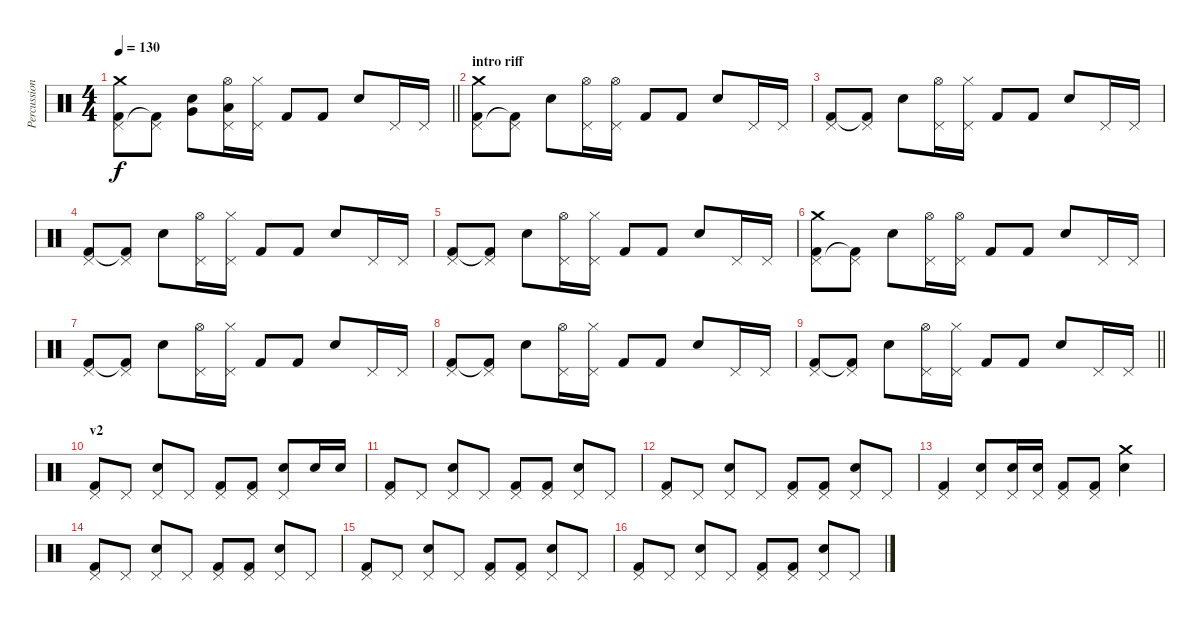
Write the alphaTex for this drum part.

\track ("Percussion" "Percussion") {instrument percussion}
\staff {score}
\articulation defaults
\ts (4 4)
\tempo 130
\clef neutral
\barLineRight lightlight
\ks c
("Crash medium (hit)" "Pedal Hi-Hat (hit)" "Kick (hit) 2").8{dy f} ("Pedal Hi-Hat (hit)" "Kick (hit) 2"{t}).8 ("Very Low Tom (hit)" "Electric Snare (hit)").8 ("Low Floor Tom (hit)" "Hi-Hat (open)" "Pedal Hi-Hat (hit)").16 ("Hi-Hat (closed)" "Pedal Hi-Hat (hit)").16 "Kick (hit) 2".8 "Kick (hit) 2".8 "Electric Snare (hit)".8 "Pedal Hi-Hat (hit)".16 "Pedal Hi-Hat (hit)".16 |
\section ("" "intro riff")
("Crash medium (hit)" "Pedal Hi-Hat (hit)" "Kick (hit) 2").8 ("Pedal Hi-Hat (hit)" "Kick (hit) 2"{t}).8 "Electric Snare (hit)".8 ("Pedal Hi-Hat (hit)" "Hi-Hat (open)").16 ("Pedal Hi-Hat (hit)" "Hi-Hat (open)").16 "Kick (hit) 2".8 "Kick (hit) 2".8 "Electric Snare (hit)".8 "Pedal Hi-Hat (hit)".16 "Pedal Hi-Hat (hit)".16 |
("Pedal Hi-Hat (hit)" "Kick (hit) 2").8 ("Pedal Hi-Hat (hit)" "Kick (hit) 2"{t}).8 "Electric Snare (hit)".8 ("Hi-Hat (open)" "Pedal Hi-Hat (hit)").16 ("Hi-Hat (closed)" "Pedal Hi-Hat (hit)").16 "Kick (hit) 2".8 "Kick (hit) 2".8 "Electric Snare (hit)".8 "Pedal Hi-Hat (hit)".16 "Pedal Hi-Hat (hit)".16 |
("Pedal Hi-Hat (hit)" "Kick (hit) 2").8 ("Pedal Hi-Hat (hit)" "Kick (hit) 2"{t}).8 "Electric Snare (hit)".8 ("Hi-Hat (open)" "Pedal Hi-Hat (hit)").16 ("Hi-Hat (closed)" "Pedal Hi-Hat (hit)").16 "Kick (hit) 2".8 "Kick (hit) 2".8 "Electric Snare (hit)".8 "Pedal Hi-Hat (hit)".16 "Pedal Hi-Hat (hit)".16 |
("Pedal Hi-Hat (hit)" "Kick (hit) 2").8 ("Pedal Hi-Hat (hit)" "Kick (hit) 2"{t}).8 "Electric Snare (hit)".8 ("Hi-Hat (open)" "Pedal Hi-Hat (hit)").16 ("Hi-Hat (closed)" "Pedal Hi-Hat (hit)").16 "Kick (hit) 2".8 "Kick (hit) 2".8 "Electric Snare (hit)".8 "Pedal Hi-Hat (hit)".16 "Pedal Hi-Hat (hit)".16 |
("Crash medium (hit)" "Pedal Hi-Hat (hit)" "Kick (hit) 2").8 ("Pedal Hi-Hat (hit)" "Kick (hit) 2"{t}).8 "Electric Snare (hit)".8 ("Pedal Hi-Hat (hit)" "Hi-Hat (open)").16 ("Pedal Hi-Hat (hit)" "Hi-Hat (open)").16 "Kick (hit) 2".8 "Kick (hit) 2".8 "Electric Snare (hit)".8 "Pedal Hi-Hat (hit)".16 "Pedal Hi-Hat (hit)".16 |
("Pedal Hi-Hat (hit)" "Kick (hit) 2").8 ("Pedal Hi-Hat (hit)" "Kick (hit) 2"{t}).8 "Electric Snare (hit)".8 ("Hi-Hat (open)" "Pedal Hi-Hat (hit)").16 ("Hi-Hat (closed)" "Pedal Hi-Hat (hit)").16 "Kick (hit) 2".8 "Kick (hit) 2".8 "Electric Snare (hit)".8 "Pedal Hi-Hat (hit)".16 "Pedal Hi-Hat (hit)".16 |
("Pedal Hi-Hat (hit)" "Kick (hit) 2").8 ("Pedal Hi-Hat (hit)" "Kick (hit) 2"{t}).8 "Electric Snare (hit)".8 ("Hi-Hat (open)" "Pedal Hi-Hat (hit)").16 ("Hi-Hat (closed)" "Pedal Hi-Hat (hit)").16 "Kick (hit) 2".8 "Kick (hit) 2".8 "Electric Snare (hit)".8 "Pedal Hi-Hat (hit)".16 "Pedal Hi-Hat (hit)".16 |
\barLineRight lightlight
("Pedal Hi-Hat (hit)" "Kick (hit) 2").8 ("Pedal Hi-Hat (hit)" "Kick (hit) 2"{t}).8 "Electric Snare (hit)".8 ("Hi-Hat (open)" "Pedal Hi-Hat (hit)").16 ("Hi-Hat (closed)" "Pedal Hi-Hat (hit)").16 "Kick (hit) 2".8 "Kick (hit) 2".8 "Electric Snare (hit)".8 "Pedal Hi-Hat (hit)".16 "Pedal Hi-Hat (hit)".16 |
\section ("" "v2")
("Pedal Hi-Hat (hit)" "Kick (hit) 2").8 "Pedal Hi-Hat (hit)".8 ("Pedal Hi-Hat (hit)" "Electric Snare (hit)").8 "Pedal Hi-Hat (hit)".8 ("Pedal Hi-Hat (hit)" "Kick (hit) 2").8 ("Pedal Hi-Hat (hit)" "Kick (hit) 2").8 ("Pedal Hi-Hat (hit)" "Electric Snare (hit)").8 "Electric Snare (hit)".16 "Electric Snare (hit)".16 |
("Pedal Hi-Hat (hit)" "Kick (hit) 2").8 "Pedal Hi-Hat (hit)".8 ("Pedal Hi-Hat (hit)" "Electric Snare (hit)").8 "Pedal Hi-Hat (hit)".8 ("Pedal Hi-Hat (hit)" "Kick (hit) 2").8 ("Pedal Hi-Hat (hit)" "Kick (hit) 2").8 ("Pedal Hi-Hat (hit)" "Electric Snare (hit)").8 "Pedal Hi-Hat (hit)".8 |
("Pedal Hi-Hat (hit)" "Kick (hit) 2").8 "Pedal Hi-Hat (hit)".8 ("Pedal Hi-Hat (hit)" "Electric Snare (hit)").8 "Pedal Hi-Hat (hit)".8 ("Pedal Hi-Hat (hit)" "Kick (hit) 2").8 ("Pedal Hi-Hat (hit)" "Kick (hit) 2").8 ("Pedal Hi-Hat (hit)" "Electric Snare (hit)").8 "Pedal Hi-Hat (hit)".8 |
("Pedal Hi-Hat (hit)" "Kick (hit) 2").4 ("Pedal Hi-Hat (hit)" "Electric Snare (hit)").8 ("Pedal Hi-Hat (hit)" "Electric Snare (hit)").16 ("Pedal Hi-Hat (hit)" "Electric Snare (hit)").16 ("Pedal Hi-Hat (hit)" "Kick (hit) 2").8 ("Pedal Hi-Hat (hit)" "Kick (hit) 2").8 ("Crash medium (hit)" "Electric Snare (hit)").4 |
("Pedal Hi-Hat (hit)" "Kick (hit) 2").8 "Pedal Hi-Hat (hit)".8 ("Pedal Hi-Hat (hit)" "Electric Snare (hit)").8 "Pedal Hi-Hat (hit)".8 ("Pedal Hi-Hat (hit)" "Kick (hit) 2").8 ("Pedal Hi-Hat (hit)" "Kick (hit) 2").8 ("Pedal Hi-Hat (hit)" "Electric Snare (hit)").8 "Pedal Hi-Hat (hit)".8 |
("Pedal Hi-Hat (hit)" "Kick (hit) 2").8 "Pedal Hi-Hat (hit)".8 ("Pedal Hi-Hat (hit)" "Electric Snare (hit)").8 "Pedal Hi-Hat (hit)".8 ("Pedal Hi-Hat (hit)" "Kick (hit) 2").8 ("Pedal Hi-Hat (hit)" "Kick (hit) 2").8 ("Pedal Hi-Hat (hit)" "Electric Snare (hit)").8 "Pedal Hi-Hat (hit)".8 |
("Pedal Hi-Hat (hit)" "Kick (hit) 2").8 "Pedal Hi-Hat (hit)".8 ("Pedal Hi-Hat (hit)" "Electric Snare (hit)").8 "Pedal Hi-Hat (hit)".8 ("Pedal Hi-Hat (hit)" "Kick (hit) 2").8 ("Pedal Hi-Hat (hit)" "Kick (hit) 2").8 ("Pedal Hi-Hat (hit)" "Electric Snare (hit)").8 "Pedal Hi-Hat (hit)".8
